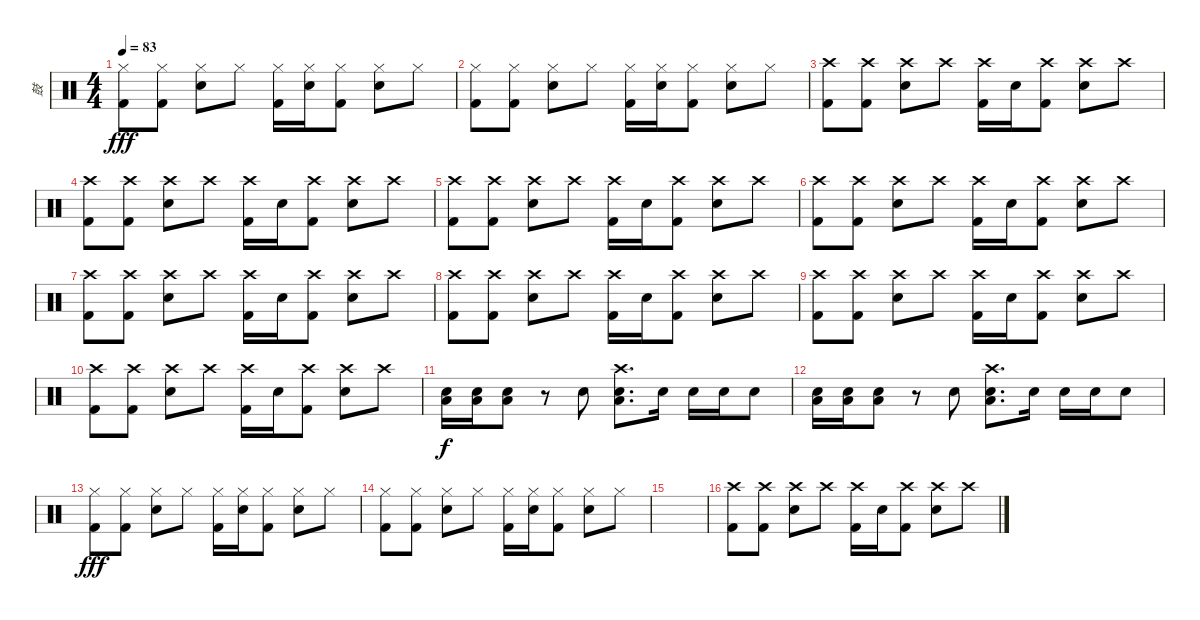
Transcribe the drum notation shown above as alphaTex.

\track ("鼓" "鼓") {instrument percussion}
\staff {score}
\articulation defaults
\ts (4 4)
\tempo 83
\clef neutral
\ks c
("Hi-Hat (closed)" "Kick (hit) 2").8{dy fff} ("Hi-Hat (closed)" "Kick (hit) 2").8 ("Hi-Hat (closed)" "Electric Snare (hit)").8 "Hi-Hat (closed)".8 ("Hi-Hat (closed)" "Kick (hit) 2").16 ("Hi-Hat (closed)" "Electric Snare (hit)").16 ("Hi-Hat (closed)" "Kick (hit) 2").8 ("Hi-Hat (closed)" "Electric Snare (hit)").8 "Hi-Hat (closed)".8 |
("Hi-Hat (closed)" "Kick (hit) 2").8 ("Hi-Hat (closed)" "Kick (hit) 2").8 ("Hi-Hat (closed)" "Electric Snare (hit)").8 "Hi-Hat (closed)".8 ("Hi-Hat (closed)" "Kick (hit) 2").16 ("Hi-Hat (closed)" "Electric Snare (hit)").16 ("Hi-Hat (closed)" "Kick (hit) 2").8 ("Hi-Hat (closed)" "Electric Snare (hit)").8 "Hi-Hat (closed)".8 |
("Crash high (hit)" "Kick (hit) 2").8 ("Crash high (hit)" "Kick (hit) 2").8 ("Crash high (hit)" "Electric Snare (hit)").8 "Crash high (hit)".8 ("Crash high (hit)" "Kick (hit) 2").16 "Electric Snare (hit)".16 ("Crash high (hit)" "Kick (hit) 2").8 ("Crash high (hit)" "Electric Snare (hit)").8 "Crash high (hit)".8 |
("Crash high (hit)" "Kick (hit) 2").8 ("Crash high (hit)" "Kick (hit) 2").8 ("Crash high (hit)" "Electric Snare (hit)").8 "Crash high (hit)".8 ("Crash high (hit)" "Kick (hit) 2").16 "Electric Snare (hit)".16 ("Crash high (hit)" "Kick (hit) 2").8 ("Crash high (hit)" "Electric Snare (hit)").8 "Crash high (hit)".8 |
("Crash high (hit)" "Kick (hit) 2").8 ("Crash high (hit)" "Kick (hit) 2").8 ("Crash high (hit)" "Electric Snare (hit)").8 "Crash high (hit)".8 ("Crash high (hit)" "Kick (hit) 2").16 "Electric Snare (hit)".16 ("Crash high (hit)" "Kick (hit) 2").8 ("Crash high (hit)" "Electric Snare (hit)").8 "Crash high (hit)".8 |
("Crash high (hit)" "Kick (hit) 2").8 ("Crash high (hit)" "Kick (hit) 2").8 ("Crash high (hit)" "Electric Snare (hit)").8 "Crash high (hit)".8 ("Crash high (hit)" "Kick (hit) 2").16 "Electric Snare (hit)".16 ("Crash high (hit)" "Kick (hit) 2").8 ("Crash high (hit)" "Electric Snare (hit)").8 "Crash high (hit)".8 |
("Crash high (hit)" "Kick (hit) 2").8 ("Crash high (hit)" "Kick (hit) 2").8 ("Crash high (hit)" "Electric Snare (hit)").8 "Crash high (hit)".8 ("Crash high (hit)" "Kick (hit) 2").16 "Electric Snare (hit)".16 ("Crash high (hit)" "Kick (hit) 2").8 ("Crash high (hit)" "Electric Snare (hit)").8 "Crash high (hit)".8 |
("Crash high (hit)" "Kick (hit) 2").8 ("Crash high (hit)" "Kick (hit) 2").8 ("Crash high (hit)" "Electric Snare (hit)").8 "Crash high (hit)".8 ("Crash high (hit)" "Kick (hit) 2").16 "Electric Snare (hit)".16 ("Crash high (hit)" "Kick (hit) 2").8 ("Crash high (hit)" "Electric Snare (hit)").8 "Crash high (hit)".8 |
("Crash high (hit)" "Kick (hit) 2").8 ("Crash high (hit)" "Kick (hit) 2").8 ("Crash high (hit)" "Electric Snare (hit)").8 "Crash high (hit)".8 ("Crash high (hit)" "Kick (hit) 2").16 "Electric Snare (hit)".16 ("Crash high (hit)" "Kick (hit) 2").8 ("Crash high (hit)" "Electric Snare (hit)").8 "Crash high (hit)".8 |
("Crash high (hit)" "Kick (hit) 2").8 ("Crash high (hit)" "Kick (hit) 2").8 ("Crash high (hit)" "Electric Snare (hit)").8 "Crash high (hit)".8 ("Crash high (hit)" "Kick (hit) 2").16 "Electric Snare (hit)".16 ("Crash high (hit)" "Kick (hit) 2").8 ("Crash high (hit)" "Electric Snare (hit)").8 "Crash high (hit)".8 |
("Electric Snare (hit)" "Low Tom (hit)").16{dy f} ("Electric Snare (hit)" "Low Tom (hit)").16 ("Electric Snare (hit)" "Low Tom (hit)").8 r.8 "Electric Snare (hit)".8 ("Crash high (hit)" "Electric Snare (hit)" "Low Tom (hit)").8{d} "Electric Snare (hit)".16 "Electric Snare (hit)".16 "Electric Snare (hit)".16 "Electric Snare (hit)".8 |
("Electric Snare (hit)" "Low Tom (hit)").16 ("Electric Snare (hit)" "Low Tom (hit)").16 ("Electric Snare (hit)" "Low Tom (hit)").8 r.8 "Electric Snare (hit)".8 ("Crash high (hit)" "Electric Snare (hit)" "Low Tom (hit)").8{d} "Electric Snare (hit)".16 "Electric Snare (hit)".16 "Electric Snare (hit)".16 "Electric Snare (hit)".8 |
("Hi-Hat (closed)" "Kick (hit) 2").8{dy fff} ("Hi-Hat (closed)" "Kick (hit) 2").8 ("Hi-Hat (closed)" "Electric Snare (hit)").8 "Hi-Hat (closed)".8 ("Hi-Hat (closed)" "Kick (hit) 2").16 ("Hi-Hat (closed)" "Electric Snare (hit)").16 ("Hi-Hat (closed)" "Kick (hit) 2").8 ("Hi-Hat (closed)" "Electric Snare (hit)").8 "Hi-Hat (closed)".8 |
("Hi-Hat (closed)" "Kick (hit) 2").8 ("Hi-Hat (closed)" "Kick (hit) 2").8 ("Hi-Hat (closed)" "Electric Snare (hit)").8 "Hi-Hat (closed)".8 ("Hi-Hat (closed)" "Kick (hit) 2").16 ("Hi-Hat (closed)" "Electric Snare (hit)").16 ("Hi-Hat (closed)" "Kick (hit) 2").8 ("Hi-Hat (closed)" "Electric Snare (hit)").8 "Hi-Hat (closed)".8 |
|
("Crash high (hit)" "Kick (hit) 2").8 ("Crash high (hit)" "Kick (hit) 2").8 ("Crash high (hit)" "Electric Snare (hit)").8 "Crash high (hit)".8 ("Crash high (hit)" "Kick (hit) 2").16 "Electric Snare (hit)".16 ("Crash high (hit)" "Kick (hit) 2").8 ("Crash high (hit)" "Electric Snare (hit)").8 "Crash high (hit)".8
